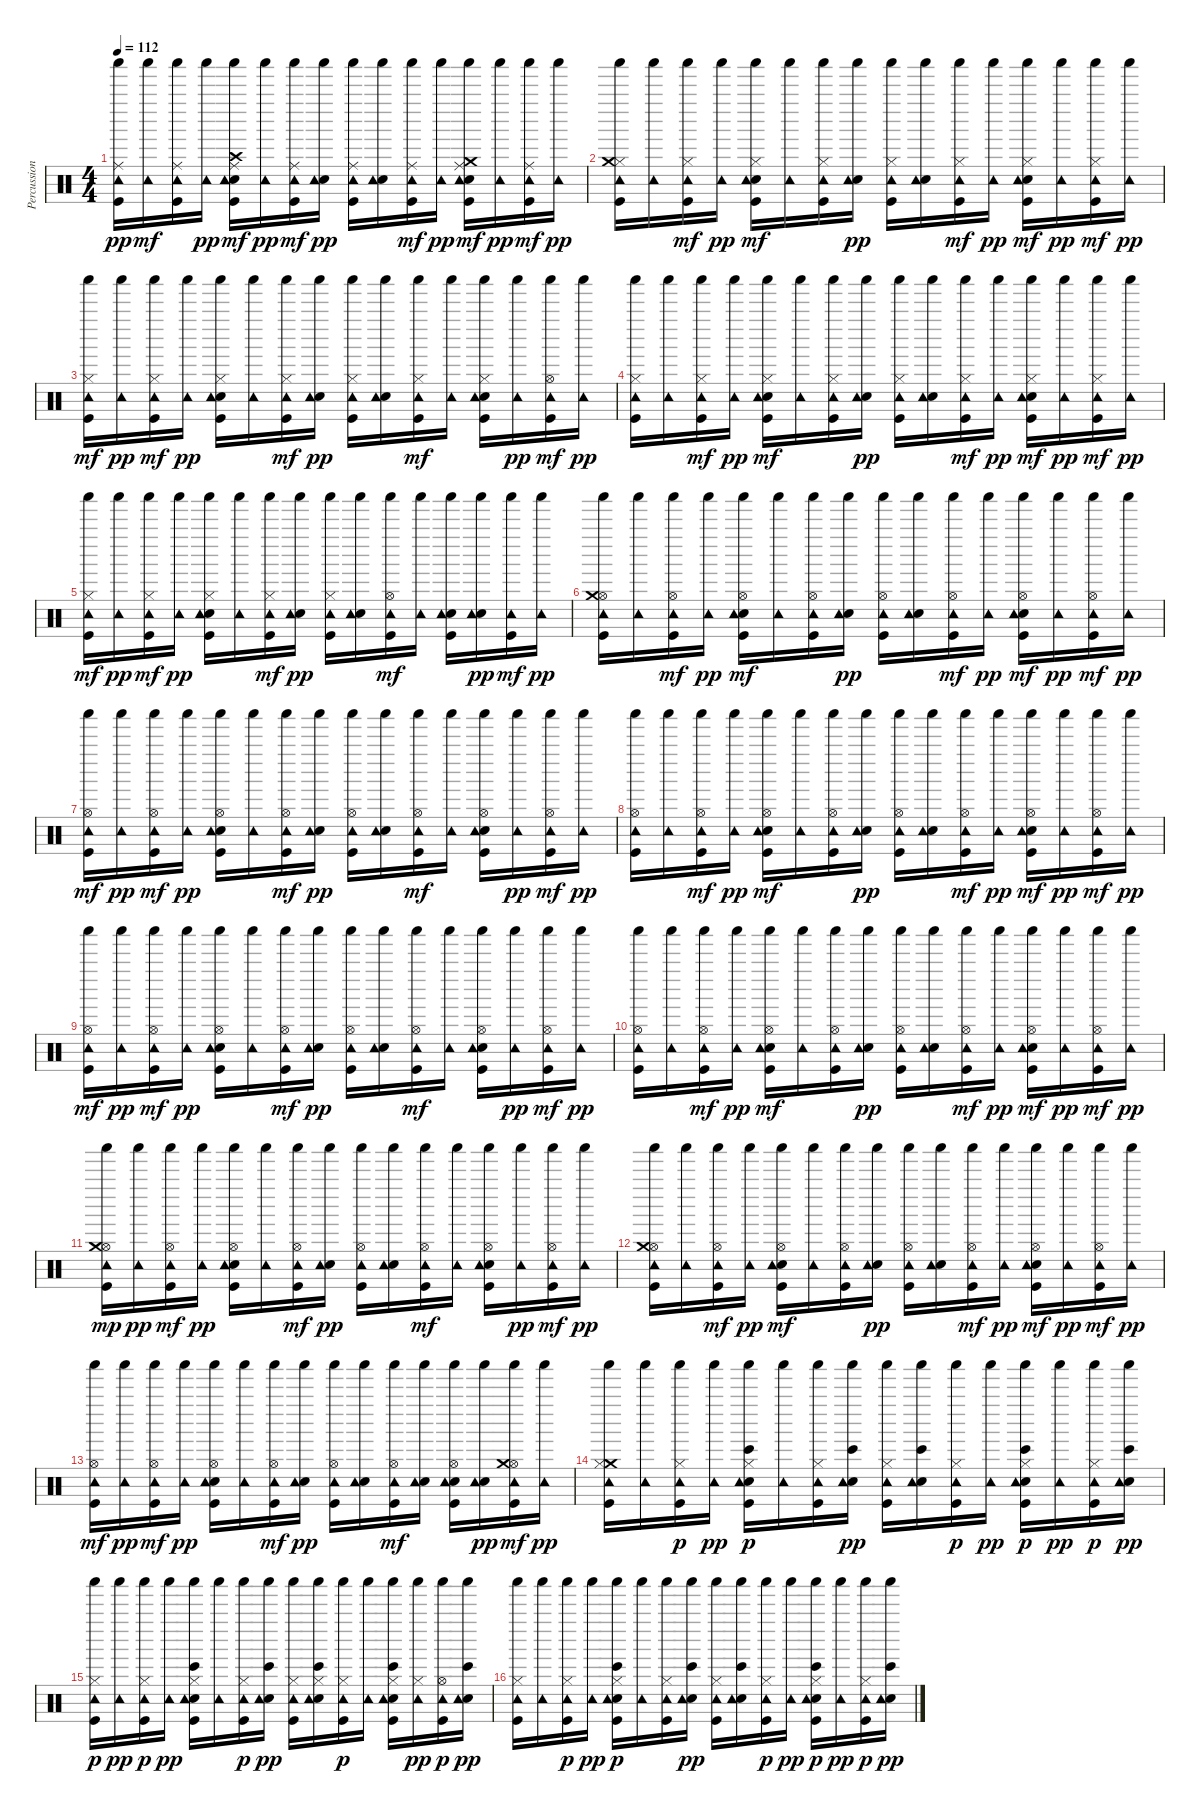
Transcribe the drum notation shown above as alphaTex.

\track ("Percussioni" "Percussion") {instrument percussion}
\staff {score}
\articulation defaults
\ts (4 4)
\tempo 112
\clef neutral
\ks c
("Kick (hit)" "Ride (middle)" "Tambourine (hit)" "Shaker (hit)").16{dy pp} ("Shaker (hit)" "Tambourine (hit)").16{dy mf} ("Kick (hit)" "Ride (middle)" "Shaker (hit)" "Tambourine (hit)").16 ("Tambourine (hit)" "Shaker (hit)").16{dy pp} ("Kick (hit)" "Electric Snare (hit)" "Crash high (hit)" "Ride (middle)" "Shaker (hit)" "Tambourine (hit)").16{dy mf} ("Tambourine (hit)" "Shaker (hit)").16{dy pp} ("Kick (hit)" "Ride (middle)" "Shaker (hit)" "Tambourine (hit)").16{dy mf} ("Electric Snare (hit)" "Tambourine (hit)" "Shaker (hit)").16{dy pp} ("Kick (hit)" "Ride (middle)" "Tambourine (hit)" "Shaker (hit)").16 ("Electric Snare (hit)" "Tambourine (hit)" "Shaker (hit)").16 ("Kick (hit)" "Ride (middle)" "Shaker (hit)" "Tambourine (hit)").16{dy mf} ("Tambourine (hit)" "Shaker (hit)").16{dy pp} ("Shaker (hit)" "Kick (hit)" "Electric Snare (hit)" "Ride (middle)" "Crash medium (hit)" "Tambourine (hit)").16{dy mf} ("Tambourine (hit)" "Shaker (hit)").16{dy pp} ("Kick (hit)" "Ride (middle)" "Shaker (hit)" "Tambourine (hit)").16{dy mf} ("Tambourine (hit)" "Shaker (hit)").16{dy pp} |
("Kick (hit)" "Hi-Hat (closed)" "Tambourine (hit)" "Crash medium (hit)" "Shaker (hit)").16 ("Tambourine (hit)" "Shaker (hit)").16 ("Kick (hit)" "Hi-Hat (closed)" "Shaker (hit)" "Tambourine (hit)").16{dy mf} ("Tambourine (hit)" "Shaker (hit)").16{dy pp} ("Kick (hit)" "Electric Snare (hit)" "Hi-Hat (closed)" "Shaker (hit)" "Tambourine (hit)").16{dy mf} ("Shaker (hit)" "Tambourine (hit)").16 ("Kick (hit)" "Hi-Hat (closed)" "Shaker (hit)" "Tambourine (hit)").16 ("Electric Snare (hit)" "Tambourine (hit)" "Shaker (hit)").16{dy pp} ("Kick (hit)" "Hi-Hat (closed)" "Tambourine (hit)" "Shaker (hit)").16 ("Electric Snare (hit)" "Tambourine (hit)" "Shaker (hit)").16 ("Kick (hit)" "Hi-Hat (closed)" "Shaker (hit)" "Tambourine (hit)").16{dy mf} ("Tambourine (hit)" "Shaker (hit)").16{dy pp} ("Kick (hit)" "Electric Snare (hit)" "Hi-Hat (closed)" "Shaker (hit)" "Tambourine (hit)").16{dy mf} ("Tambourine (hit)" "Shaker (hit)").16{dy pp} ("Kick (hit)" "Hi-Hat (closed)" "Shaker (hit)" "Tambourine (hit)").16{dy mf} ("Tambourine (hit)" "Shaker (hit)").16{dy pp} |
("Shaker (hit)" "Kick (hit)" "Hi-Hat (closed)" "Tambourine (hit)").16{dy mf} ("Tambourine (hit)" "Shaker (hit)").16{dy pp} ("Kick (hit)" "Hi-Hat (closed)" "Shaker (hit)" "Tambourine (hit)").16{dy mf} ("Tambourine (hit)" "Shaker (hit)").16{dy pp} ("Kick (hit)" "Electric Snare (hit)" "Hi-Hat (closed)" "Tambourine (hit)" "Shaker (hit)").16 ("Tambourine (hit)" "Shaker (hit)").16 ("Kick (hit)" "Hi-Hat (closed)" "Shaker (hit)" "Tambourine (hit)").16{dy mf} ("Electric Snare (hit)" "Tambourine (hit)" "Shaker (hit)").16{dy pp} ("Kick (hit)" "Hi-Hat (closed)" "Tambourine (hit)" "Shaker (hit)").16 ("Electric Snare (hit)" "Tambourine (hit)" "Shaker (hit)").16 ("Kick (hit)" "Hi-Hat (closed)" "Shaker (hit)" "Tambourine (hit)").16{dy mf} ("Shaker (hit)" "Tambourine (hit)").16 ("Kick (hit)" "Electric Snare (hit)" "Hi-Hat (closed)" "Shaker (hit)" "Tambourine (hit)").16 ("Tambourine (hit)" "Shaker (hit)").16{dy pp} ("Kick (hit)" "Hi-Hat (open)" "Shaker (hit)" "Tambourine (hit)").16{dy mf} ("Tambourine (hit)" "Shaker (hit)").16{dy pp} |
("Kick (hit)" "Hi-Hat (closed)" "Tambourine (hit)" "Shaker (hit)").16 ("Tambourine (hit)" "Shaker (hit)").16 ("Kick (hit)" "Hi-Hat (closed)" "Shaker (hit)" "Tambourine (hit)").16{dy mf} ("Tambourine (hit)" "Shaker (hit)").16{dy pp} ("Kick (hit)" "Electric Snare (hit)" "Hi-Hat (closed)" "Shaker (hit)" "Tambourine (hit)").16{dy mf} ("Shaker (hit)" "Tambourine (hit)").16 ("Kick (hit)" "Hi-Hat (closed)" "Shaker (hit)" "Tambourine (hit)").16 ("Electric Snare (hit)" "Tambourine (hit)" "Shaker (hit)").16{dy pp} ("Kick (hit)" "Hi-Hat (closed)" "Tambourine (hit)" "Shaker (hit)").16 ("Electric Snare (hit)" "Tambourine (hit)" "Shaker (hit)").16 ("Kick (hit)" "Hi-Hat (closed)" "Shaker (hit)" "Tambourine (hit)").16{dy mf} ("Tambourine (hit)" "Shaker (hit)").16{dy pp} ("Kick (hit)" "Electric Snare (hit)" "Hi-Hat (closed)" "Shaker (hit)" "Tambourine (hit)").16{dy mf} ("Tambourine (hit)" "Shaker (hit)").16{dy pp} ("Kick (hit)" "Hi-Hat (closed)" "Shaker (hit)" "Tambourine (hit)").16{dy mf} ("Tambourine (hit)" "Shaker (hit)").16{dy pp} |
("Shaker (hit)" "Kick (hit)" "Hi-Hat (closed)" "Tambourine (hit)").16{dy mf} ("Tambourine (hit)" "Shaker (hit)").16{dy pp} ("Kick (hit)" "Hi-Hat (closed)" "Shaker (hit)" "Tambourine (hit)").16{dy mf} ("Tambourine (hit)" "Shaker (hit)").16{dy pp} ("Kick (hit)" "Electric Snare (hit)" "Hi-Hat (closed)" "Tambourine (hit)" "Shaker (hit)").16 ("Tambourine (hit)" "Shaker (hit)").16 ("Kick (hit)" "Hi-Hat (closed)" "Shaker (hit)" "Tambourine (hit)").16{dy mf} ("Electric Snare (hit)" "Tambourine (hit)" "Shaker (hit)").16{dy pp} ("Kick (hit)" "Hi-Hat (closed)" "Tambourine (hit)" "Shaker (hit)").16 ("Electric Snare (hit)" "Tambourine (hit)" "Shaker (hit)").16 ("Kick (hit)" "Hi-Hat (open)" "Shaker (hit)" "Tambourine (hit)").16{dy mf} ("Shaker (hit)" "Tambourine (hit)").16 ("Kick (hit)" "Electric Snare (hit)" "Shaker (hit)" "Tambourine (hit)").16 ("Electric Snare (hit)" "Tambourine (hit)" "Shaker (hit)").16{dy pp} ("Kick (hit)" "Shaker (hit)" "Tambourine (hit)").16{dy mf} ("Tambourine (hit)" "Shaker (hit)").16{dy pp} |
("Kick (hit)" "Hi-Hat (open)" "Tambourine (hit)" "Crash medium (hit)" "Shaker (hit)").16 ("Tambourine (hit)" "Shaker (hit)").16 ("Kick (hit)" "Hi-Hat (open)" "Shaker (hit)" "Tambourine (hit)").16{dy mf} ("Tambourine (hit)" "Shaker (hit)").16{dy pp} ("Kick (hit)" "Electric Snare (hit)" "Hi-Hat (open)" "Shaker (hit)" "Tambourine (hit)").16{dy mf} ("Shaker (hit)" "Tambourine (hit)").16 ("Kick (hit)" "Hi-Hat (open)" "Shaker (hit)" "Tambourine (hit)").16 ("Electric Snare (hit)" "Tambourine (hit)" "Shaker (hit)").16{dy pp} ("Kick (hit)" "Hi-Hat (open)" "Tambourine (hit)" "Shaker (hit)").16 ("Electric Snare (hit)" "Tambourine (hit)" "Shaker (hit)").16 ("Kick (hit)" "Hi-Hat (open)" "Shaker (hit)" "Tambourine (hit)").16{dy mf} ("Tambourine (hit)" "Shaker (hit)").16{dy pp} ("Kick (hit)" "Electric Snare (hit)" "Hi-Hat (open)" "Shaker (hit)" "Tambourine (hit)").16{dy mf} ("Tambourine (hit)" "Shaker (hit)").16{dy pp} ("Kick (hit)" "Hi-Hat (open)" "Shaker (hit)" "Tambourine (hit)").16{dy mf} ("Tambourine (hit)" "Shaker (hit)").16{dy pp} |
("Shaker (hit)" "Kick (hit)" "Hi-Hat (open)" "Tambourine (hit)").16{dy mf} ("Tambourine (hit)" "Shaker (hit)").16{dy pp} ("Kick (hit)" "Hi-Hat (open)" "Shaker (hit)" "Tambourine (hit)").16{dy mf} ("Tambourine (hit)" "Shaker (hit)").16{dy pp} ("Kick (hit)" "Electric Snare (hit)" "Hi-Hat (open)" "Tambourine (hit)" "Shaker (hit)").16 ("Tambourine (hit)" "Shaker (hit)").16 ("Kick (hit)" "Hi-Hat (open)" "Shaker (hit)" "Tambourine (hit)").16{dy mf} ("Electric Snare (hit)" "Tambourine (hit)" "Shaker (hit)").16{dy pp} ("Kick (hit)" "Hi-Hat (open)" "Tambourine (hit)" "Shaker (hit)").16 ("Electric Snare (hit)" "Tambourine (hit)" "Shaker (hit)").16 ("Kick (hit)" "Hi-Hat (open)" "Shaker (hit)" "Tambourine (hit)").16{dy mf} ("Shaker (hit)" "Tambourine (hit)").16 ("Kick (hit)" "Electric Snare (hit)" "Hi-Hat (open)" "Shaker (hit)" "Tambourine (hit)").16 ("Tambourine (hit)" "Shaker (hit)").16{dy pp} ("Kick (hit)" "Hi-Hat (open)" "Shaker (hit)" "Tambourine (hit)").16{dy mf} ("Tambourine (hit)" "Shaker (hit)").16{dy pp} |
("Kick (hit)" "Hi-Hat (open)" "Tambourine (hit)" "Shaker (hit)").16 ("Tambourine (hit)" "Shaker (hit)").16 ("Kick (hit)" "Hi-Hat (open)" "Shaker (hit)" "Tambourine (hit)").16{dy mf} ("Tambourine (hit)" "Shaker (hit)").16{dy pp} ("Kick (hit)" "Electric Snare (hit)" "Hi-Hat (open)" "Shaker (hit)" "Tambourine (hit)").16{dy mf} ("Shaker (hit)" "Tambourine (hit)").16 ("Kick (hit)" "Hi-Hat (open)" "Shaker (hit)" "Tambourine (hit)").16 ("Electric Snare (hit)" "Tambourine (hit)" "Shaker (hit)").16{dy pp} ("Kick (hit)" "Hi-Hat (open)" "Tambourine (hit)" "Shaker (hit)").16 ("Electric Snare (hit)" "Tambourine (hit)" "Shaker (hit)").16 ("Kick (hit)" "Hi-Hat (open)" "Shaker (hit)" "Tambourine (hit)").16{dy mf} ("Tambourine (hit)" "Shaker (hit)").16{dy pp} ("Kick (hit)" "Electric Snare (hit)" "Hi-Hat (open)" "Shaker (hit)" "Tambourine (hit)").16{dy mf} ("Tambourine (hit)" "Shaker (hit)").16{dy pp} ("Kick (hit)" "Hi-Hat (open)" "Shaker (hit)" "Tambourine (hit)").16{dy mf} ("Tambourine (hit)" "Shaker (hit)").16{dy pp} |
("Shaker (hit)" "Kick (hit)" "Hi-Hat (open)" "Tambourine (hit)").16{dy mf} ("Tambourine (hit)" "Shaker (hit)").16{dy pp} ("Kick (hit)" "Hi-Hat (open)" "Shaker (hit)" "Tambourine (hit)").16{dy mf} ("Tambourine (hit)" "Shaker (hit)").16{dy pp} ("Kick (hit)" "Electric Snare (hit)" "Hi-Hat (open)" "Tambourine (hit)" "Shaker (hit)").16 ("Tambourine (hit)" "Shaker (hit)").16 ("Kick (hit)" "Hi-Hat (open)" "Shaker (hit)" "Tambourine (hit)").16{dy mf} ("Electric Snare (hit)" "Tambourine (hit)" "Shaker (hit)").16{dy pp} ("Kick (hit)" "Hi-Hat (open)" "Tambourine (hit)" "Shaker (hit)").16 ("Electric Snare (hit)" "Tambourine (hit)" "Shaker (hit)").16 ("Kick (hit)" "Hi-Hat (open)" "Shaker (hit)" "Tambourine (hit)").16{dy mf} ("Shaker (hit)" "Tambourine (hit)").16 ("Kick (hit)" "Electric Snare (hit)" "Hi-Hat (open)" "Shaker (hit)" "Tambourine (hit)").16 ("Tambourine (hit)" "Shaker (hit)").16{dy pp} ("Kick (hit)" "Hi-Hat (open)" "Shaker (hit)" "Tambourine (hit)").16{dy mf} ("Tambourine (hit)" "Shaker (hit)").16{dy pp} |
("Kick (hit)" "Hi-Hat (open)" "Tambourine (hit)" "Shaker (hit)").16 ("Tambourine (hit)" "Shaker (hit)").16 ("Kick (hit)" "Hi-Hat (open)" "Shaker (hit)" "Tambourine (hit)").16{dy mf} ("Tambourine (hit)" "Shaker (hit)").16{dy pp} ("Kick (hit)" "Electric Snare (hit)" "Hi-Hat (open)" "Shaker (hit)" "Tambourine (hit)").16{dy mf} ("Shaker (hit)" "Tambourine (hit)").16 ("Kick (hit)" "Hi-Hat (open)" "Shaker (hit)" "Tambourine (hit)").16 ("Electric Snare (hit)" "Tambourine (hit)" "Shaker (hit)").16{dy pp} ("Kick (hit)" "Hi-Hat (open)" "Tambourine (hit)" "Shaker (hit)").16 ("Electric Snare (hit)" "Tambourine (hit)" "Shaker (hit)").16 ("Kick (hit)" "Hi-Hat (open)" "Shaker (hit)" "Tambourine (hit)").16{dy mf} ("Tambourine (hit)" "Shaker (hit)").16{dy pp} ("Kick (hit)" "Electric Snare (hit)" "Hi-Hat (open)" "Shaker (hit)" "Tambourine (hit)").16{dy mf} ("Tambourine (hit)" "Shaker (hit)").16{dy pp} ("Kick (hit)" "Hi-Hat (open)" "Shaker (hit)" "Tambourine (hit)").16{dy mf} ("Tambourine (hit)" "Shaker (hit)").16{dy pp} |
("Shaker (hit)" "Kick (hit)" "Hi-Hat (open)" "Tambourine (hit)" "Crash medium (hit)").16{dy mp} ("Tambourine (hit)" "Shaker (hit)").16{dy pp} ("Kick (hit)" "Hi-Hat (open)" "Shaker (hit)" "Tambourine (hit)").16{dy mf} ("Tambourine (hit)" "Shaker (hit)").16{dy pp} ("Kick (hit)" "Electric Snare (hit)" "Hi-Hat (open)" "Tambourine (hit)" "Shaker (hit)").16 ("Tambourine (hit)" "Shaker (hit)").16 ("Kick (hit)" "Hi-Hat (open)" "Shaker (hit)" "Tambourine (hit)").16{dy mf} ("Electric Snare (hit)" "Tambourine (hit)" "Shaker (hit)").16{dy pp} ("Kick (hit)" "Hi-Hat (open)" "Tambourine (hit)" "Shaker (hit)").16 ("Electric Snare (hit)" "Tambourine (hit)" "Shaker (hit)").16 ("Kick (hit)" "Hi-Hat (open)" "Shaker (hit)" "Tambourine (hit)").16{dy mf} ("Shaker (hit)" "Tambourine (hit)").16 ("Kick (hit)" "Electric Snare (hit)" "Hi-Hat (open)" "Shaker (hit)" "Tambourine (hit)").16 ("Tambourine (hit)" "Shaker (hit)").16{dy pp} ("Kick (hit)" "Hi-Hat (open)" "Shaker (hit)" "Tambourine (hit)").16{dy mf} ("Tambourine (hit)" "Shaker (hit)").16{dy pp} |
("Kick (hit)" "Hi-Hat (open)" "Tambourine (hit)" "Crash medium (hit)" "Shaker (hit)").16 ("Tambourine (hit)" "Shaker (hit)").16 ("Kick (hit)" "Hi-Hat (open)" "Shaker (hit)" "Tambourine (hit)").16{dy mf} ("Tambourine (hit)" "Shaker (hit)").16{dy pp} ("Kick (hit)" "Electric Snare (hit)" "Hi-Hat (open)" "Shaker (hit)" "Tambourine (hit)").16{dy mf} ("Shaker (hit)" "Tambourine (hit)").16 ("Kick (hit)" "Hi-Hat (open)" "Shaker (hit)" "Tambourine (hit)").16 ("Electric Snare (hit)" "Tambourine (hit)" "Shaker (hit)").16{dy pp} ("Kick (hit)" "Hi-Hat (open)" "Tambourine (hit)" "Shaker (hit)").16 ("Electric Snare (hit)" "Tambourine (hit)" "Shaker (hit)").16 ("Kick (hit)" "Hi-Hat (open)" "Shaker (hit)" "Tambourine (hit)").16{dy mf} ("Tambourine (hit)" "Shaker (hit)").16{dy pp} ("Kick (hit)" "Electric Snare (hit)" "Hi-Hat (open)" "Shaker (hit)" "Tambourine (hit)").16{dy mf} ("Tambourine (hit)" "Shaker (hit)").16{dy pp} ("Kick (hit)" "Hi-Hat (open)" "Shaker (hit)" "Tambourine (hit)").16{dy mf} ("Tambourine (hit)" "Shaker (hit)").16{dy pp} |
("Shaker (hit)" "Kick (hit)" "Hi-Hat (open)" "Tambourine (hit)").16{dy mf} ("Tambourine (hit)" "Shaker (hit)").16{dy pp} ("Kick (hit)" "Hi-Hat (open)" "Shaker (hit)" "Tambourine (hit)").16{dy mf} ("Tambourine (hit)" "Shaker (hit)").16{dy pp} ("Kick (hit)" "Electric Snare (hit)" "Hi-Hat (open)" "Tambourine (hit)" "Shaker (hit)").16 ("Tambourine (hit)" "Shaker (hit)").16 ("Kick (hit)" "Hi-Hat (open)" "Shaker (hit)" "Tambourine (hit)").16{dy mf} ("Electric Snare (hit)" "Tambourine (hit)" "Shaker (hit)").16{dy pp} ("Kick (hit)" "Hi-Hat (open)" "Tambourine (hit)" "Shaker (hit)").16 ("Electric Snare (hit)" "Tambourine (hit)" "Shaker (hit)").16 ("Kick (hit)" "Hi-Hat (open)" "Shaker (hit)" "Tambourine (hit)").16{dy mf} ("Shaker (hit)" "Electric Snare (hit)" "Tambourine (hit)").16 ("Kick (hit)" "Electric Snare (hit)" "Hi-Hat (open)" "Shaker (hit)" "Tambourine (hit)").16 ("Electric Snare (hit)" "Tambourine (hit)" "Shaker (hit)").16{dy pp} ("Kick (hit)" "Hi-Hat (open)" "Crash medium (hit)" "Shaker (hit)" "Tambourine (hit)").16{dy mf} ("Tambourine (hit)" "Shaker (hit)").16{dy pp} |
("Crash medium (hit)" "Kick (hit)" "Hi-Hat (closed)" "Tambourine (hit)" "Shaker (hit)").16 ("Tambourine (hit)" "Shaker (hit)").16 ("Kick (hit)" "Hi-Hat (closed)" "Shaker (hit)" "Tambourine (hit)").16{dy p} ("Tambourine (hit)" "Shaker (hit)").16{dy pp} ("Bongo High (hit)" "Kick (hit)" "Electric Snare (hit)" "Hi-Hat (closed)" "Shaker (hit)" "Tambourine (hit)").16{dy p} ("Shaker (hit)" "Tambourine (hit)").16 ("Kick (hit)" "Hi-Hat (closed)" "Shaker (hit)" "Tambourine (hit)").16 ("Bongo High (hit)" "Electric Snare (hit)" "Tambourine (hit)" "Shaker (hit)").16{dy pp} ("Kick (hit)" "Hi-Hat (closed)" "Tambourine (hit)" "Shaker (hit)").16 ("Bongo High (hit)" "Electric Snare (hit)" "Tambourine (hit)" "Shaker (hit)").16 ("Kick (hit)" "Hi-Hat (closed)" "Shaker (hit)" "Tambourine (hit)").16{dy p} ("Tambourine (hit)" "Shaker (hit)").16{dy pp} ("Bongo High (hit)" "Kick (hit)" "Electric Snare (hit)" "Hi-Hat (closed)" "Shaker (hit)" "Tambourine (hit)").16{dy p} ("Tambourine (hit)" "Shaker (hit)").16{dy pp} ("Kick (hit)" "Hi-Hat (closed)" "Shaker (hit)" "Tambourine (hit)").16{dy p} ("Bongo High (hit)" "Electric Snare (hit)" "Tambourine (hit)" "Shaker (hit)").16{dy pp} |
("Shaker (hit)" "Kick (hit)" "Hi-Hat (closed)" "Tambourine (hit)").16{dy p} ("Tambourine (hit)" "Shaker (hit)").16{dy pp} ("Kick (hit)" "Hi-Hat (closed)" "Shaker (hit)" "Tambourine (hit)").16{dy p} ("Tambourine (hit)" "Shaker (hit)").16{dy pp} ("Bongo High (hit)" "Kick (hit)" "Electric Snare (hit)" "Hi-Hat (closed)" "Tambourine (hit)" "Shaker (hit)").16 ("Tambourine (hit)" "Shaker (hit)").16 ("Kick (hit)" "Hi-Hat (closed)" "Shaker (hit)" "Tambourine (hit)").16{dy p} ("Bongo High (hit)" "Electric Snare (hit)" "Tambourine (hit)" "Shaker (hit)").16{dy pp} ("Kick (hit)" "Hi-Hat (closed)" "Tambourine (hit)" "Shaker (hit)").16 ("Bongo High (hit)" "Electric Snare (hit)" "Hi-Hat (closed)" "Tambourine (hit)" "Shaker (hit)").16 ("Kick (hit)" "Hi-Hat (closed)" "Shaker (hit)" "Tambourine (hit)").16{dy p} ("Shaker (hit)" "Tambourine (hit)").16 ("Bongo High (hit)" "Kick (hit)" "Electric Snare (hit)" "Hi-Hat (closed)" "Shaker (hit)" "Tambourine (hit)").16 ("Hi-Hat (closed)" "Tambourine (hit)" "Shaker (hit)").16{dy pp} ("Kick (hit)" "Hi-Hat (open)" "Shaker (hit)" "Tambourine (hit)").16{dy p} ("Bongo High (hit)" "Electric Snare (hit)" "Tambourine (hit)" "Shaker (hit)").16{dy pp} |
("Kick (hit)" "Hi-Hat (closed)" "Tambourine (hit)" "Shaker (hit)").16 ("Tambourine (hit)" "Shaker (hit)").16 ("Kick (hit)" "Hi-Hat (closed)" "Shaker (hit)" "Tambourine (hit)").16{dy p} ("Tambourine (hit)" "Shaker (hit)").16{dy pp} ("Bongo High (hit)" "Kick (hit)" "Electric Snare (hit)" "Hi-Hat (closed)" "Shaker (hit)" "Tambourine (hit)").16{dy p} ("Shaker (hit)" "Tambourine (hit)").16 ("Kick (hit)" "Hi-Hat (closed)" "Shaker (hit)" "Tambourine (hit)").16 ("Bongo High (hit)" "Electric Snare (hit)" "Tambourine (hit)" "Shaker (hit)").16{dy pp} ("Kick (hit)" "Hi-Hat (closed)" "Tambourine (hit)" "Shaker (hit)").16 ("Bongo High (hit)" "Electric Snare (hit)" "Tambourine (hit)" "Shaker (hit)").16 ("Kick (hit)" "Hi-Hat (closed)" "Shaker (hit)" "Tambourine (hit)").16{dy p} ("Tambourine (hit)" "Shaker (hit)").16{dy pp} ("Bongo High (hit)" "Kick (hit)" "Electric Snare (hit)" "Hi-Hat (closed)" "Shaker (hit)" "Tambourine (hit)").16{dy p} ("Tambourine (hit)" "Shaker (hit)").16{dy pp} ("Kick (hit)" "Hi-Hat (closed)" "Shaker (hit)" "Tambourine (hit)").16{dy p} ("Bongo High (hit)" "Electric Snare (hit)" "Tambourine (hit)" "Shaker (hit)").16{dy pp}
